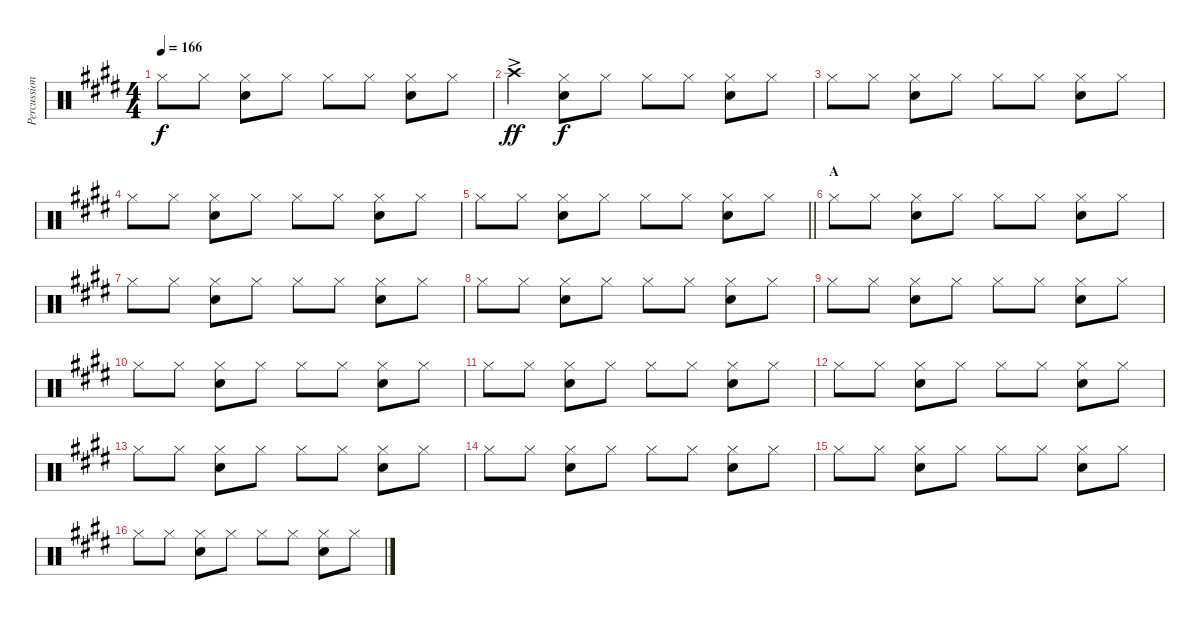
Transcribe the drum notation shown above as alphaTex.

\track ("Percussion - Other" "Percussion") {instrument percussion}
\staff {score}
\articulation defaults
\ts (4 4)
\tempo 166
\clef neutral
\ks e "Hi-Hat (closed)".8{dy f} "Hi-Hat (closed)".8
("Hi-Hat (closed)" "Snare (hit) 2").8 "Hi-Hat (closed)".8 "Hi-Hat (closed)".8 "Hi-Hat (closed)".8 ("Hi-Hat (closed)" "Snare (hit) 2").8 "Hi-Hat (closed)".8 |
"Crash high (hit)"{ac}.4{dy ff} ("Hi-Hat (closed)" "Snare (hit) 2").8{dy f} "Hi-Hat (closed)".8 "Hi-Hat (closed)".8 "Hi-Hat (closed)".8 ("Hi-Hat (closed)" "Snare (hit) 2").8 "Hi-Hat (closed)".8 |
"Hi-Hat (closed)".8 "Hi-Hat (closed)".8 ("Hi-Hat (closed)" "Snare (hit) 2").8 "Hi-Hat (closed)".8 "Hi-Hat (closed)".8 "Hi-Hat (closed)".8 ("Hi-Hat (closed)" "Snare (hit) 2").8 "Hi-Hat (closed)".8 |
"Hi-Hat (closed)".8 "Hi-Hat (closed)".8 ("Hi-Hat (closed)" "Snare (hit) 2").8 "Hi-Hat (closed)".8 "Hi-Hat (closed)".8 "Hi-Hat (closed)".8 ("Hi-Hat (closed)" "Snare (hit) 2").8 "Hi-Hat (closed)".8 |
\barLineRight lightlight "Hi-Hat (closed)".8 "Hi-Hat (closed)".8
("Hi-Hat (closed)" "Snare (hit) 2").8 "Hi-Hat (closed)".8 "Hi-Hat (closed)".8 "Hi-Hat (closed)".8 ("Hi-Hat (closed)" "Snare (hit) 2").8 "Hi-Hat (closed)".8 |
\section ("" "A")
"Hi-Hat (closed)".8 "Hi-Hat (closed)".8 ("Hi-Hat (closed)" "Snare (hit) 2").8 "Hi-Hat (closed)".8 "Hi-Hat (closed)".8 "Hi-Hat (closed)".8 ("Hi-Hat (closed)" "Snare (hit) 2").8 "Hi-Hat (closed)".8 |
"Hi-Hat (closed)".8 "Hi-Hat (closed)".8 ("Hi-Hat (closed)" "Snare (hit) 2").8 "Hi-Hat (closed)".8 "Hi-Hat (closed)".8 "Hi-Hat (closed)".8 ("Hi-Hat (closed)" "Snare (hit) 2").8 "Hi-Hat (closed)".8 |
"Hi-Hat (closed)".8 "Hi-Hat (closed)".8 ("Hi-Hat (closed)" "Snare (hit) 2").8 "Hi-Hat (closed)".8 "Hi-Hat (closed)".8 "Hi-Hat (closed)".8 ("Hi-Hat (closed)" "Snare (hit) 2").8 "Hi-Hat (closed)".8 |
"Hi-Hat (closed)".8 "Hi-Hat (closed)".8 ("Hi-Hat (closed)" "Snare (hit) 2").8 "Hi-Hat (closed)".8 "Hi-Hat (closed)".8 "Hi-Hat (closed)".8 ("Hi-Hat (closed)" "Snare (hit) 2").8 "Hi-Hat (closed)".8 |
"Hi-Hat (closed)".8 "Hi-Hat (closed)".8 ("Hi-Hat (closed)" "Snare (hit) 2").8 "Hi-Hat (closed)".8 "Hi-Hat (closed)".8 "Hi-Hat (closed)".8 ("Hi-Hat (closed)" "Snare (hit) 2").8 "Hi-Hat (closed)".8 |
"Hi-Hat (closed)".8 "Hi-Hat (closed)".8 ("Hi-Hat (closed)" "Snare (hit) 2").8 "Hi-Hat (closed)".8 "Hi-Hat (closed)".8 "Hi-Hat (closed)".8 ("Hi-Hat (closed)" "Snare (hit) 2").8 "Hi-Hat (closed)".8 |
"Hi-Hat (closed)".8 "Hi-Hat (closed)".8 ("Hi-Hat (closed)" "Snare (hit) 2").8 "Hi-Hat (closed)".8 "Hi-Hat (closed)".8 "Hi-Hat (closed)".8 ("Hi-Hat (closed)" "Snare (hit) 2").8 "Hi-Hat (closed)".8 |
"Hi-Hat (closed)".8 "Hi-Hat (closed)".8 ("Hi-Hat (closed)" "Snare (hit) 2").8 "Hi-Hat (closed)".8 "Hi-Hat (closed)".8 "Hi-Hat (closed)".8 ("Hi-Hat (closed)" "Snare (hit) 2").8 "Hi-Hat (closed)".8 |
"Hi-Hat (closed)".8 "Hi-Hat (closed)".8 ("Hi-Hat (closed)" "Snare (hit) 2").8 "Hi-Hat (closed)".8 "Hi-Hat (closed)".8 "Hi-Hat (closed)".8 ("Hi-Hat (closed)" "Snare (hit) 2").8 "Hi-Hat (closed)".8 |
"Hi-Hat (closed)".8 "Hi-Hat (closed)".8 ("Hi-Hat (closed)" "Snare (hit) 2").8 "Hi-Hat (closed)".8 "Hi-Hat (closed)".8 "Hi-Hat (closed)".8 ("Hi-Hat (closed)" "Snare (hit) 2").8 "Hi-Hat (closed)".8 |
"Hi-Hat (closed)".8 "Hi-Hat (closed)".8 ("Hi-Hat (closed)" "Snare (hit) 2").8 "Hi-Hat (closed)".8 "Hi-Hat (closed)".8 "Hi-Hat (closed)".8 ("Hi-Hat (closed)" "Snare (hit) 2").8 "Hi-Hat (closed)".8
